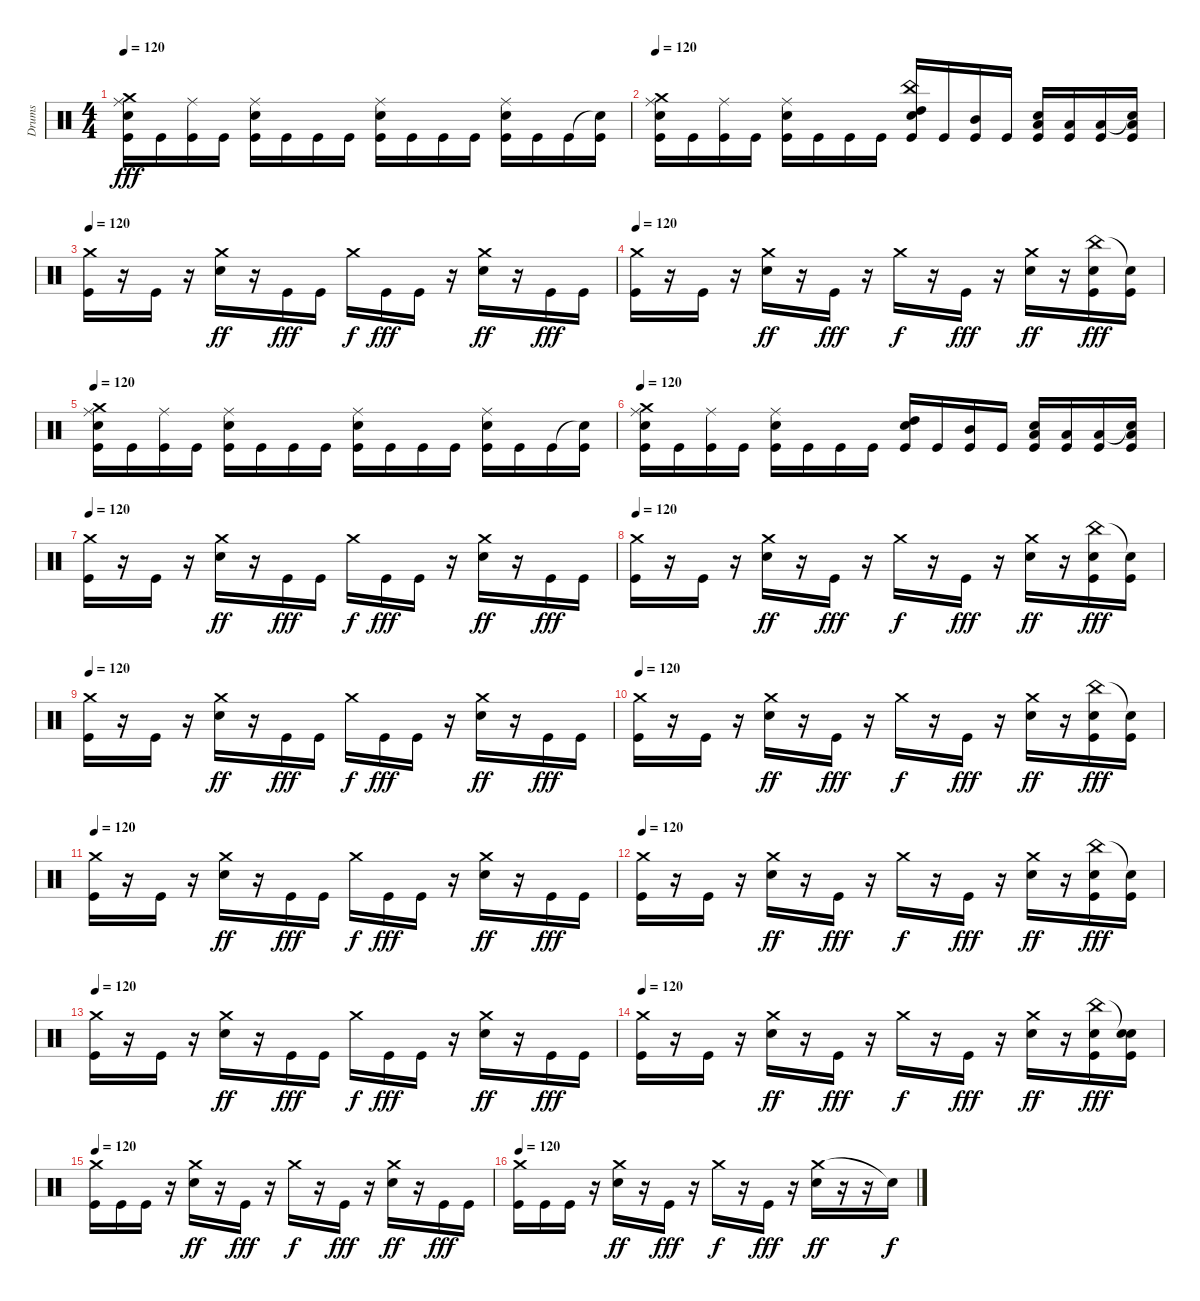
\track ("Drums" "Drums") {instrument percussion}
\staff {score}
\articulation defaults
\ts (4 4)
\tempo 120
\clef neutral
\ks c
("Ride (middle)" "Crash medium (hit)" "Snare (hit) 2" "Kick (hit)").16{dy fff} "Kick (hit)".16 ("Ride (middle)" "Kick (hit)").16 "Kick (hit)".16 ("Ride (middle)" "Snare (hit) 2" "Kick (hit)").16 "Kick (hit)".16 "Kick (hit)".16 "Kick (hit)".16 ("Ride (middle)" "Snare (hit) 2" "Kick (hit)").16 "Kick (hit)".16 "Kick (hit)".16 "Kick (hit)".16 ("Ride (middle)" "Snare (hit) 2" "Kick (hit)").16 "Kick (hit)".16 "Kick (hit)".16 ("Snare (hit)"{t} "Kick (hit)").16 |
\tempo 120
("Ride (middle)" "Crash medium (hit)" "Snare (hit) 2" "Kick (hit)").16 "Kick (hit)".16 ("Ride (middle)" "Kick (hit)").16 "Kick (hit)".16 ("Ride (middle)" "Snare (hit) 2" "Kick (hit)").16 "Kick (hit)".16 "Kick (hit)".16 "Kick (hit)".16 ("China (hit)" "High Tom (hit)" "Snare (hit) 2" "Kick (hit)").16 "Kick (hit)".16 ("Mid Tom (hit)" "Kick (hit)").16 "Kick (hit)".16 ("Low Tom (hit)" "Snare (hit) 2" "Kick (hit)").16 ("Low Tom (hit)" "Kick (hit)").16 ("Low Floor Tom (hit)" "Kick (hit)").16 ("Snare (hit)"{t} "Low Floor Tom (hit)" "Kick (hit)").16 |
\tempo 120
("Crash medium (hit)" "Kick (hit)").16 r.16 "Kick (hit)".16 r.16 ("Crash medium (hit)" "Electric Snare (hit)").16{dy ff} r.16 "Kick (hit)".16{dy fff} "Kick (hit)".16 "Crash medium (hit)".16{dy f} "Kick (hit)".16{dy fff} "Kick (hit)".16 r.16 ("Crash medium (hit)" "Electric Snare (hit)").16{dy ff} r.16 "Kick (hit)".16{dy fff} "Kick (hit)".16 |
\tempo 120
("Crash medium (hit)" "Kick (hit)").16 r.16 "Kick (hit)".16 r.16 ("Crash medium (hit)" "Electric Snare (hit)").16{dy ff} r.16 "Kick (hit)".16{dy fff} r.16 "Crash medium (hit)".16{dy f} r.16 "Kick (hit)".16{dy fff} r.16 ("Crash medium (hit)" "Electric Snare (hit)").16{dy ff} r.16 ("China (hit)" "Electric Snare (hit)" "Kick (hit)").16{dy fff} ("Snare (hit)"{t} "Kick (hit)").16 |
\tempo 120
("Ride (middle)" "Crash medium (hit)" "Snare (hit) 2" "Kick (hit)").16 "Kick (hit)".16 ("Ride (middle)" "Kick (hit)").16 "Kick (hit)".16 ("Ride (middle)" "Snare (hit) 2" "Kick (hit)").16 "Kick (hit)".16 "Kick (hit)".16 "Kick (hit)".16 ("Ride (middle)" "Snare (hit) 2" "Kick (hit)").16 "Kick (hit)".16 "Kick (hit)".16 "Kick (hit)".16 ("Ride (middle)" "Snare (hit) 2" "Kick (hit)").16 "Kick (hit)".16 "Kick (hit)".16 ("Snare (hit)"{t} "Kick (hit)").16 |
\tempo 120
("Ride (middle)" "Crash medium (hit)" "Snare (hit) 2" "Kick (hit)").16 "Kick (hit)".16 ("Ride (middle)" "Kick (hit)").16 "Kick (hit)".16 ("Ride (middle)" "Snare (hit) 2" "Kick (hit)").16 "Kick (hit)".16 "Kick (hit)".16 "Kick (hit)".16 ("High Tom (hit)" "Snare (hit) 2" "Kick (hit)").16 "Kick (hit)".16 ("Mid Tom (hit)" "Kick (hit)").16 "Kick (hit)".16 ("Low Tom (hit)" "Snare (hit) 2" "Kick (hit)").16 ("Low Tom (hit)" "Kick (hit)").16 ("Low Floor Tom (hit)" "Kick (hit)").16 ("Snare (hit)"{t} "Low Floor Tom (hit)" "Kick (hit)").16 |
\tempo 120
("Crash medium (hit)" "Kick (hit)").16 r.16 "Kick (hit)".16 r.16 ("Crash medium (hit)" "Electric Snare (hit)").16{dy ff} r.16 "Kick (hit)".16{dy fff} "Kick (hit)".16 "Crash medium (hit)".16{dy f} "Kick (hit)".16{dy fff} "Kick (hit)".16 r.16 ("Crash medium (hit)" "Electric Snare (hit)").16{dy ff} r.16 "Kick (hit)".16{dy fff} "Kick (hit)".16 |
\tempo 120
("Crash medium (hit)" "Kick (hit)").16 r.16 "Kick (hit)".16 r.16 ("Crash medium (hit)" "Electric Snare (hit)").16{dy ff} r.16 "Kick (hit)".16{dy fff} r.16 "Crash medium (hit)".16{dy f} r.16 "Kick (hit)".16{dy fff} r.16 ("Crash medium (hit)" "Electric Snare (hit)").16{dy ff} r.16 ("China (hit)" "Electric Snare (hit)" "Kick (hit)").16{dy fff} ("Snare (hit)"{t} "Kick (hit)").16 |
\tempo 120
("Crash medium (hit)" "Kick (hit)").16 r.16 "Kick (hit)".16 r.16 ("Crash medium (hit)" "Electric Snare (hit)").16{dy ff} r.16 "Kick (hit)".16{dy fff} "Kick (hit)".16 "Crash medium (hit)".16{dy f} "Kick (hit)".16{dy fff} "Kick (hit)".16 r.16 ("Crash medium (hit)" "Electric Snare (hit)").16{dy ff} r.16 "Kick (hit)".16{dy fff} "Kick (hit)".16 |
\tempo 120
("Crash medium (hit)" "Kick (hit)").16 r.16 "Kick (hit)".16 r.16 ("Crash medium (hit)" "Electric Snare (hit)").16{dy ff} r.16 "Kick (hit)".16{dy fff} r.16 "Crash medium (hit)".16{dy f} r.16 "Kick (hit)".16{dy fff} r.16 ("Crash medium (hit)" "Electric Snare (hit)").16{dy ff} r.16 ("China (hit)" "Electric Snare (hit)" "Kick (hit)").16{dy fff} ("Snare (hit)"{t} "Kick (hit)").16 |
\tempo 120
("Crash medium (hit)" "Kick (hit)").16 r.16 "Kick (hit)".16 r.16 ("Crash medium (hit)" "Electric Snare (hit)").16{dy ff} r.16 "Kick (hit)".16{dy fff} "Kick (hit)".16 "Crash medium (hit)".16{dy f} "Kick (hit)".16{dy fff} "Kick (hit)".16 r.16 ("Crash medium (hit)" "Electric Snare (hit)").16{dy ff} r.16 "Kick (hit)".16{dy fff} "Kick (hit)".16 |
\tempo 120
("Crash medium (hit)" "Kick (hit)").16 r.16 "Kick (hit)".16 r.16 ("Crash medium (hit)" "Electric Snare (hit)").16{dy ff} r.16 "Kick (hit)".16{dy fff} r.16 "Crash medium (hit)".16{dy f} r.16 "Kick (hit)".16{dy fff} r.16 ("Crash medium (hit)" "Electric Snare (hit)").16{dy ff} r.16 ("China (hit)" "Electric Snare (hit)" "Kick (hit)").16{dy fff} ("Snare (hit)"{t} "Kick (hit)").16 |
\tempo 120
("Crash medium (hit)" "Kick (hit)").16 r.16 "Kick (hit)".16 r.16 ("Crash medium (hit)" "Electric Snare (hit)").16{dy ff} r.16 "Kick (hit)".16{dy fff} "Kick (hit)".16 "Crash medium (hit)".16{dy f} "Kick (hit)".16{dy fff} "Kick (hit)".16 r.16 ("Crash medium (hit)" "Electric Snare (hit)").16{dy ff} r.16 "Kick (hit)".16{dy fff} "Kick (hit)".16 |
\tempo 120
("Crash medium (hit)" "Kick (hit)").16 r.16 "Kick (hit)".16 r.16 ("Crash medium (hit)" "Electric Snare (hit)").16{dy ff} r.16 "Kick (hit)".16{dy fff} r.16 "Crash medium (hit)".16{dy f} r.16 "Kick (hit)".16{dy fff} r.16 ("Crash medium (hit)" "Electric Snare (hit)").16{dy ff} r.16 ("China (hit)" "Electric Snare (hit)" "Kick (hit)").16{dy fff} ("Snare (hit)"{t} "Electric Snare (hit)" "Kick (hit)").16 |
\tempo 120
("Crash medium (hit)" "Kick (hit)").16 "Kick (hit)".16 "Kick (hit)".16 r.16 ("Crash medium (hit)" "Electric Snare (hit)").16{dy ff} r.16 "Kick (hit)".16{dy fff} r.16 "Crash medium (hit)".16{dy f} r.16 "Kick (hit)".16{dy fff} r.16 ("Crash medium (hit)" "Electric Snare (hit)").16{dy ff} r.16 "Kick (hit)".16{dy fff} "Kick (hit)".16 |
\tempo 120
("Crash medium (hit)" "Kick (hit)").16 "Kick (hit)".16 "Kick (hit)".16 r.16 ("Crash medium (hit)" "Electric Snare (hit)").16{dy ff} r.16 "Kick (hit)".16{dy fff} r.16 "Crash medium (hit)".16{dy f} r.16 "Kick (hit)".16{dy fff} r.16 ("Crash medium (hit)" "Electric Snare (hit)").16{dy ff} r.16 r.16 "Snare (hit)"{t}.16{dy f}
